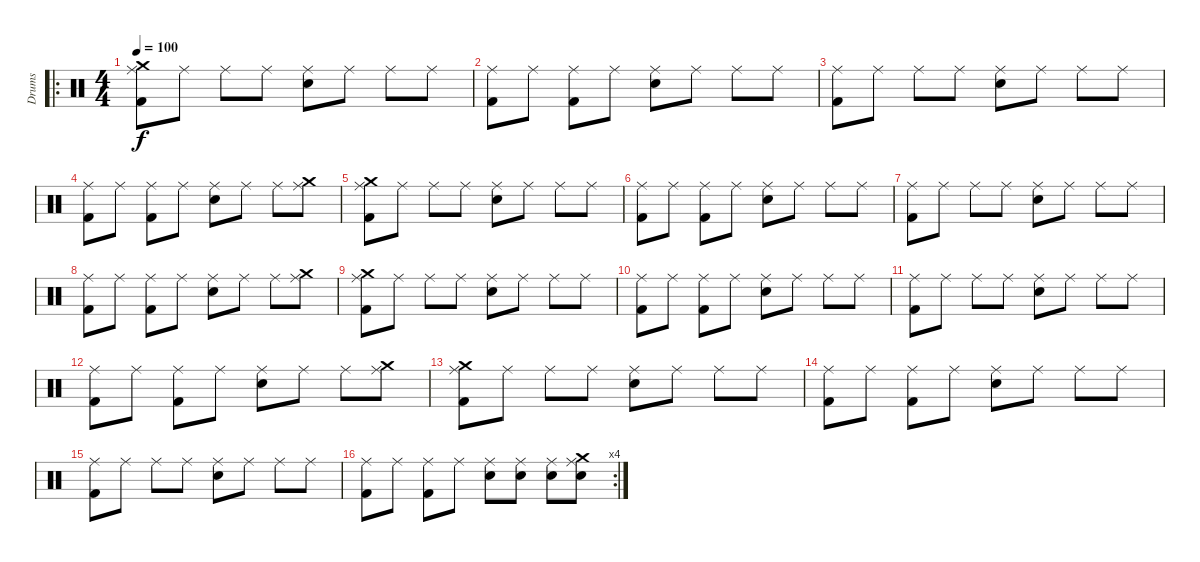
\track ("Drums" "Drums") {instrument percussion}
\staff {score}
\articulation defaults
\ro
\ts (4 4)
\tempo 100
\clef neutral
\ks c
("Ride (middle)" "Crash medium (hit)" "Kick (hit) 2").8{dy f} "Ride (middle)".8 "Ride (middle)".8 "Ride (middle)".8 ("Ride (middle)" "Electric Snare (hit)").8 "Ride (middle)".8 "Ride (middle)".8 "Ride (middle)".8 |
("Ride (middle)" "Kick (hit) 2").8 "Ride (middle)".8 ("Ride (middle)" "Kick (hit) 2").8 "Ride (middle)".8 ("Ride (middle)" "Electric Snare (hit)").8 "Ride (middle)".8 "Ride (middle)".8 "Ride (middle)".8 |
("Ride (middle)" "Kick (hit) 2").8 "Ride (middle)".8 "Ride (middle)".8 "Ride (middle)".8 ("Ride (middle)" "Electric Snare (hit)").8 "Ride (middle)".8 "Ride (middle)".8 "Ride (middle)".8 |
("Ride (middle)" "Kick (hit) 2").8 "Ride (middle)".8 ("Ride (middle)" "Kick (hit) 2").8 "Ride (middle)".8 ("Ride (middle)" "Electric Snare (hit)").8 "Ride (middle)".8 "Ride (middle)".8 ("Ride (middle)" "Crash medium (hit)").8 |
("Ride (middle)" "Crash medium (hit)" "Kick (hit) 2").8 "Ride (middle)".8 "Ride (middle)".8 "Ride (middle)".8 ("Ride (middle)" "Electric Snare (hit)").8 "Ride (middle)".8 "Ride (middle)".8 "Ride (middle)".8 |
("Ride (middle)" "Kick (hit) 2").8 "Ride (middle)".8 ("Ride (middle)" "Kick (hit) 2").8 "Ride (middle)".8 ("Ride (middle)" "Electric Snare (hit)").8 "Ride (middle)".8 "Ride (middle)".8 "Ride (middle)".8 |
("Ride (middle)" "Kick (hit) 2").8 "Ride (middle)".8 "Ride (middle)".8 "Ride (middle)".8 ("Ride (middle)" "Electric Snare (hit)").8 "Ride (middle)".8 "Ride (middle)".8 "Ride (middle)".8 |
("Ride (middle)" "Kick (hit) 2").8 "Ride (middle)".8 ("Ride (middle)" "Kick (hit) 2").8 "Ride (middle)".8 ("Ride (middle)" "Electric Snare (hit)").8 "Ride (middle)".8 "Ride (middle)".8 ("Ride (middle)" "Crash medium (hit)").8 |
("Ride (middle)" "Crash medium (hit)" "Kick (hit) 2").8 "Ride (middle)".8 "Ride (middle)".8 "Ride (middle)".8 ("Ride (middle)" "Electric Snare (hit)").8 "Ride (middle)".8 "Ride (middle)".8 "Ride (middle)".8 |
("Ride (middle)" "Kick (hit) 2").8 "Ride (middle)".8 ("Ride (middle)" "Kick (hit) 2").8 "Ride (middle)".8 ("Ride (middle)" "Electric Snare (hit)").8 "Ride (middle)".8 "Ride (middle)".8 "Ride (middle)".8 |
("Ride (middle)" "Kick (hit) 2").8 "Ride (middle)".8 "Ride (middle)".8 "Ride (middle)".8 ("Ride (middle)" "Electric Snare (hit)").8 "Ride (middle)".8 "Ride (middle)".8 "Ride (middle)".8 |
("Ride (middle)" "Kick (hit) 2").8 "Ride (middle)".8 ("Ride (middle)" "Kick (hit) 2").8 "Ride (middle)".8 ("Ride (middle)" "Electric Snare (hit)").8 "Ride (middle)".8 "Ride (middle)".8 ("Ride (middle)" "Crash medium (hit)").8 |
("Ride (middle)" "Crash medium (hit)" "Kick (hit) 2").8 "Ride (middle)".8 "Ride (middle)".8 "Ride (middle)".8 ("Ride (middle)" "Electric Snare (hit)").8 "Ride (middle)".8 "Ride (middle)".8 "Ride (middle)".8 |
("Ride (middle)" "Kick (hit) 2").8 "Ride (middle)".8 ("Ride (middle)" "Kick (hit) 2").8 "Ride (middle)".8 ("Ride (middle)" "Electric Snare (hit)").8 "Ride (middle)".8 "Ride (middle)".8 "Ride (middle)".8 |
("Ride (middle)" "Kick (hit) 2").8 "Ride (middle)".8 "Ride (middle)".8 "Ride (middle)".8 ("Ride (middle)" "Electric Snare (hit)").8 "Ride (middle)".8 "Ride (middle)".8 "Ride (middle)".8 |
\rc 4
("Ride (middle)" "Kick (hit) 2").8 "Ride (middle)".8 ("Ride (middle)" "Kick (hit) 2").8 "Ride (middle)".8 ("Ride (middle)" "Electric Snare (hit)").8 ("Ride (middle)" "Electric Snare (hit)").8 ("Ride (middle)" "Electric Snare (hit)").8 ("Ride (middle)" "Crash medium (hit)" "Electric Snare (hit)").8
